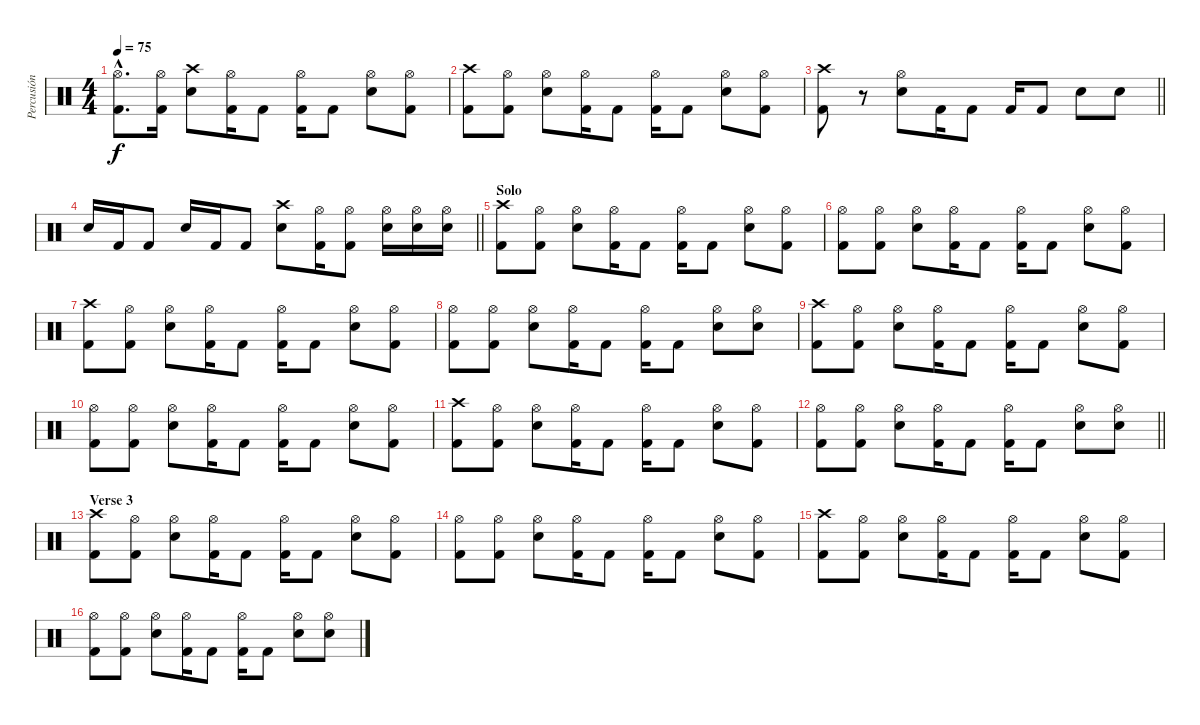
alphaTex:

\track ("Percusión" "Percusión") {instrument percussion}
\staff {score}
\articulation defaults
\ts (4 4)
\tempo 75
\clef neutral
\ks c
("Hi-Hat (open)"{hac} "Kick (hit) 2"{hac}).8{d dy f} ("Hi-Hat (open)" "Kick (hit) 2").16 ("Crash high (hit)" "Snare (hit) 2").8 ("Hi-Hat (open)" "Kick (hit) 2").16 "Kick (hit) 2".8 ("Hi-Hat (open)" "Kick (hit) 2").16 "Kick (hit) 2".8 ("Hi-Hat (open)" "Snare (hit) 2").8 ("Hi-Hat (open)" "Kick (hit) 2").8 |
("Crash high (hit)" "Kick (hit) 2").8 ("Hi-Hat (open)" "Kick (hit) 2").8 ("Hi-Hat (open)" "Snare (hit) 2").8 ("Hi-Hat (open)" "Kick (hit) 2").16 "Kick (hit) 2".8 ("Hi-Hat (open)" "Kick (hit) 2").16 "Kick (hit) 2".8 ("Hi-Hat (open)" "Snare (hit) 2").8 ("Hi-Hat (open)" "Kick (hit) 2").8 |
\barLineRight lightlight
("Crash high (hit)" "Kick (hit) 2").8 r.8 ("Hi-Hat (open)" "Snare (hit) 2").8 "Kick (hit) 2".16 "Kick (hit) 2".8 "Kick (hit) 2".16 "Kick (hit) 2".8 "Snare (hit) 2".8 "Snare (hit) 2".8 |
\barLineRight lightlight "Snare (hit) 2".16 "Kick (hit) 2".16 "Kick (hit) 2".8 "Snare (hit) 2".16 "Kick (hit) 2".16 "Kick (hit) 2".8
("Crash high (hit)" "Snare (hit) 2").8 ("Hi-Hat (open)" "Kick (hit) 2").16 ("Hi-Hat (open)" "Kick (hit) 2").8 ("Hi-Hat (open)" "Snare (hit) 2").16 ("Hi-Hat (open)" "Snare (hit) 2").16 ("Hi-Hat (open)" "Snare (hit) 2").16 |
\section ("" "Solo")
("Crash high (hit)" "Kick (hit) 2").8 ("Hi-Hat (open)" "Kick (hit) 2").8 ("Hi-Hat (open)" "Snare (hit) 2").8 ("Hi-Hat (open)" "Kick (hit) 2").16 "Kick (hit) 2".8 ("Hi-Hat (open)" "Kick (hit) 2").16 "Kick (hit) 2".8 ("Hi-Hat (open)" "Snare (hit) 2").8 ("Hi-Hat (open)" "Kick (hit) 2").8 |
("Hi-Hat (open)" "Kick (hit) 2").8 ("Hi-Hat (open)" "Kick (hit) 2").8 ("Hi-Hat (open)" "Snare (hit) 2").8 ("Hi-Hat (open)" "Kick (hit) 2").16 "Kick (hit) 2".8 ("Hi-Hat (open)" "Kick (hit) 2").16 "Kick (hit) 2".8 ("Hi-Hat (open)" "Snare (hit) 2").8 ("Hi-Hat (open)" "Kick (hit) 2").8 |
("Crash high (hit)" "Kick (hit) 2").8 ("Hi-Hat (open)" "Kick (hit) 2").8 ("Hi-Hat (open)" "Snare (hit) 2").8 ("Hi-Hat (open)" "Kick (hit) 2").16 "Kick (hit) 2".8 ("Hi-Hat (open)" "Kick (hit) 2").16 "Kick (hit) 2".8 ("Hi-Hat (open)" "Snare (hit) 2").8 ("Hi-Hat (open)" "Kick (hit) 2").8 |
("Hi-Hat (open)" "Kick (hit) 2").8 ("Hi-Hat (open)" "Kick (hit) 2").8 ("Hi-Hat (open)" "Snare (hit) 2").8 ("Hi-Hat (open)" "Kick (hit) 2").16 "Kick (hit) 2".8 ("Hi-Hat (open)" "Kick (hit) 2").16 "Kick (hit) 2".8 ("Hi-Hat (open)" "Snare (hit) 2").8 ("Hi-Hat (open)" "Snare (hit) 2").8 |
("Crash high (hit)" "Kick (hit) 2").8 ("Hi-Hat (open)" "Kick (hit) 2").8 ("Hi-Hat (open)" "Snare (hit) 2").8 ("Hi-Hat (open)" "Kick (hit) 2").16 "Kick (hit) 2".8 ("Hi-Hat (open)" "Kick (hit) 2").16 "Kick (hit) 2".8 ("Hi-Hat (open)" "Snare (hit) 2").8 ("Hi-Hat (open)" "Kick (hit) 2").8 |
("Hi-Hat (open)" "Kick (hit) 2").8 ("Hi-Hat (open)" "Kick (hit) 2").8 ("Hi-Hat (open)" "Snare (hit) 2").8 ("Hi-Hat (open)" "Kick (hit) 2").16 "Kick (hit) 2".8 ("Hi-Hat (open)" "Kick (hit) 2").16 "Kick (hit) 2".8 ("Hi-Hat (open)" "Snare (hit) 2").8 ("Hi-Hat (open)" "Kick (hit) 2").8 |
("Crash high (hit)" "Kick (hit) 2").8 ("Hi-Hat (open)" "Kick (hit) 2").8 ("Hi-Hat (open)" "Snare (hit) 2").8 ("Hi-Hat (open)" "Kick (hit) 2").16 "Kick (hit) 2".8 ("Hi-Hat (open)" "Kick (hit) 2").16 "Kick (hit) 2".8 ("Hi-Hat (open)" "Snare (hit) 2").8 ("Hi-Hat (open)" "Kick (hit) 2").8 |
\barLineRight lightlight
("Hi-Hat (open)" "Kick (hit) 2").8 ("Hi-Hat (open)" "Kick (hit) 2").8 ("Hi-Hat (open)" "Snare (hit) 2").8 ("Hi-Hat (open)" "Kick (hit) 2").16 "Kick (hit) 2".8 ("Hi-Hat (open)" "Kick (hit) 2").16 "Kick (hit) 2".8 ("Hi-Hat (open)" "Snare (hit) 2").8 ("Hi-Hat (open)" "Snare (hit) 2").8 |
\section ("" "Verse 3")
("Crash high (hit)" "Kick (hit) 2").8 ("Hi-Hat (open)" "Kick (hit) 2").8 ("Hi-Hat (open)" "Snare (hit) 2").8 ("Hi-Hat (open)" "Kick (hit) 2").16 "Kick (hit) 2".8 ("Hi-Hat (open)" "Kick (hit) 2").16 "Kick (hit) 2".8 ("Hi-Hat (open)" "Snare (hit) 2").8 ("Hi-Hat (open)" "Kick (hit) 2").8 |
("Hi-Hat (open)" "Kick (hit) 2").8 ("Hi-Hat (open)" "Kick (hit) 2").8 ("Hi-Hat (open)" "Snare (hit) 2").8 ("Hi-Hat (open)" "Kick (hit) 2").16 "Kick (hit) 2".8 ("Hi-Hat (open)" "Kick (hit) 2").16 "Kick (hit) 2".8 ("Hi-Hat (open)" "Snare (hit) 2").8 ("Hi-Hat (open)" "Kick (hit) 2").8 |
("Crash high (hit)" "Kick (hit) 2").8 ("Hi-Hat (open)" "Kick (hit) 2").8 ("Hi-Hat (open)" "Snare (hit) 2").8 ("Hi-Hat (open)" "Kick (hit) 2").16 "Kick (hit) 2".8 ("Hi-Hat (open)" "Kick (hit) 2").16 "Kick (hit) 2".8 ("Hi-Hat (open)" "Snare (hit) 2").8 ("Hi-Hat (open)" "Kick (hit) 2").8 |
("Hi-Hat (open)" "Kick (hit) 2").8 ("Hi-Hat (open)" "Kick (hit) 2").8 ("Hi-Hat (open)" "Snare (hit) 2").8 ("Hi-Hat (open)" "Kick (hit) 2").16 "Kick (hit) 2".8 ("Hi-Hat (open)" "Kick (hit) 2").16 "Kick (hit) 2".8 ("Hi-Hat (open)" "Snare (hit) 2").8 ("Hi-Hat (open)" "Snare (hit) 2").8
